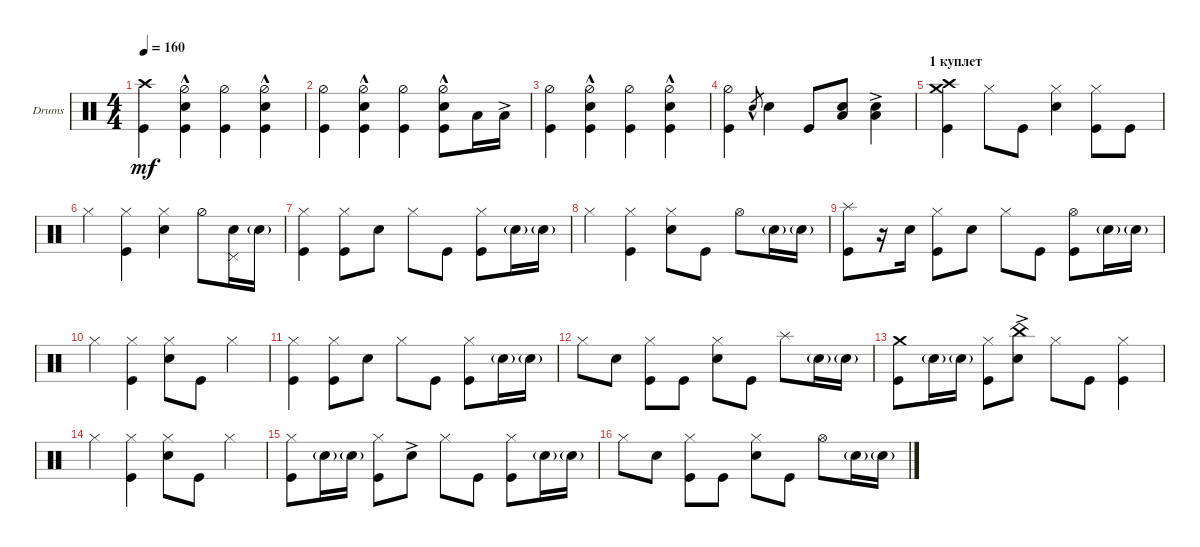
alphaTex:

\defaultSystemsLayout 4
\bracketExtendMode groupsimilarinstruments
\firstSystemTrackNameOrientation horizontal
\otherSystemsTrackNameOrientation horizontal
\track ("Drumkit" "Drums") {instrument percussion}
\staff {score}
\articulation defaults
\ts (4 4)
\tempo 160
\clef neutral
\ks c
("Kick (hit)" "Crash high (hit)").4{dy mf} ("Kick (hit)" "Snare (hit) 2"{hac} "Hi-Hat (half)").4 ("Kick (hit)" "Hi-Hat (half)").4 ("Kick (hit)" "Snare (hit) 2"{hac} "Hi-Hat (half)").4 |
("Kick (hit)" "Hi-Hat (half)").4 ("Kick (hit)" "Snare (hit) 2"{hac} "Hi-Hat (half)").4 ("Kick (hit)" "Hi-Hat (half)").4 ("Kick (hit)" "Snare (hit) 2"{hac} "Hi-Hat (half)").8 "Low Tom (hit)".16 "Low Tom (hit)"{ac}.16 |
("Kick (hit)" "Hi-Hat (half)").4 ("Kick (hit)" "Snare (hit) 2"{hac} "Hi-Hat (half)").4 ("Kick (hit)" "Hi-Hat (half)").4 ("Kick (hit)" "Snare (hit) 2"{hac} "Hi-Hat (half)").4 |
("Kick (hit)" "Hi-Hat (half)").4 "Snare (hit) 2"{hac}.8{gr} "Snare (hit) 2".4 "Kick (hit)".8 ("Low Tom (hit)" "Snare (hit) 2").8 ("Low Tom (hit)"{ac} "Snare (hit) 2"{ac}).4 |
\section ("" "1 куплет")
("Kick (hit)" "Crash medium (hit)" "Crash high (hit)").4 "Hi-Hat (closed)".8 "Kick (hit)".8 ("Hi-Hat (closed)" "Snare (hit) 2").4 ("Kick (hit)" "Hi-Hat (closed)").8 "Kick (hit)".8 |
"Hi-Hat (closed)".4 ("Kick (hit)" "Hi-Hat (closed)").4 ("Hi-Hat (closed)" "Snare (hit) 2").4 "Hi-Hat (half)".8 ("Snare (hit) 2" "Pedal Hi-Hat (hit)").16 "Snare (hit) 2"{g}.16 |
("Hi-Hat (closed)" "Kick (hit)").4 ("Hi-Hat (closed)" "Kick (hit)").8 "Snare (hit) 2".8 "Hi-Hat (closed)".8 "Kick (hit)".8 ("Hi-Hat (closed)" "Kick (hit)").8 "Snare (hit) 2"{g}.16 "Snare (hit) 2"{g}.16 |
"Hi-Hat (closed)".4 ("Kick (hit)" "Hi-Hat (closed)").4 ("Snare (hit) 2" "Hi-Hat (closed)").8 "Kick (hit)".8 "Hi-Hat (open)".8 "Snare (hit) 2"{g}.16 "Snare (hit) 2"{g}.16 |
("Kick (hit)" "Splash (hit)").8 r.16 "Snare (hit) 2".16 ("Kick (hit)" "Hi-Hat (closed)").8 "Snare (hit) 2".8 "Hi-Hat (closed)".8 "Kick (hit)".8 ("Kick (hit)" "Hi-Hat (open)").8 "Snare (hit) 2"{g}.16 "Snare (hit) 2"{g}.16 |
"Hi-Hat (closed)".4 ("Kick (hit)" "Hi-Hat (closed)").4 ("Snare (hit) 2" "Hi-Hat (closed)").8 "Kick (hit)".8 "Hi-Hat (closed)".4 |
("Hi-Hat (closed)" "Kick (hit)").4 ("Hi-Hat (closed)" "Kick (hit)").8 "Snare (hit) 2".8 "Hi-Hat (closed)".8 "Kick (hit)".8 ("Hi-Hat (closed)" "Kick (hit)").8 "Snare (hit) 2"{g}.16 "Snare (hit) 2"{g}.16 |
"Hi-Hat (closed)".8 "Snare (hit) 2".8 ("Kick (hit)" "Hi-Hat (closed)").8 "Kick (hit)".8 ("Snare (hit) 2" "Hi-Hat (closed)").8 "Kick (hit)".8 "Splash (hit)".8 "Snare (hit) 2"{g}.16 "Snare (hit) 2"{g}.16 |
("Kick (hit)" "Crash medium (hit)").8 "Snare (hit) 2"{g}.16 "Snare (hit) 2"{g}.16 ("Kick (hit)" "Hi-Hat (closed)").8 ("Snare (hit) 2"{ac} "China (hit)").8 "Hi-Hat (closed)".8 "Kick (hit)".8 ("Kick (hit)" "Hi-Hat (closed)").4 |
"Hi-Hat (closed)".4 ("Kick (hit)" "Hi-Hat (closed)").4 ("Snare (hit) 2" "Hi-Hat (closed)").8 "Kick (hit)".8 "Hi-Hat (closed)".4 |
("Kick (hit)" "Hi-Hat (closed)").8 "Snare (hit) 2"{g}.16 "Snare (hit) 2"{g}.16 ("Hi-Hat (closed)" "Kick (hit)").8 "Snare (hit) 2"{ac}.8 "Hi-Hat (closed)".8 "Kick (hit)".8 ("Kick (hit)" "Hi-Hat (closed)").8 "Snare (hit) 2"{g}.16 "Snare (hit) 2"{g}.16 |
"Hi-Hat (closed)".8 "Snare (hit) 2".8 ("Kick (hit)" "Hi-Hat (closed)").8 "Kick (hit)".8 ("Snare (hit) 2" "Hi-Hat (closed)").8 "Kick (hit)".8 "Hi-Hat (open)".8 "Snare (hit) 2"{g}.16 "Snare (hit) 2"{g}.16
